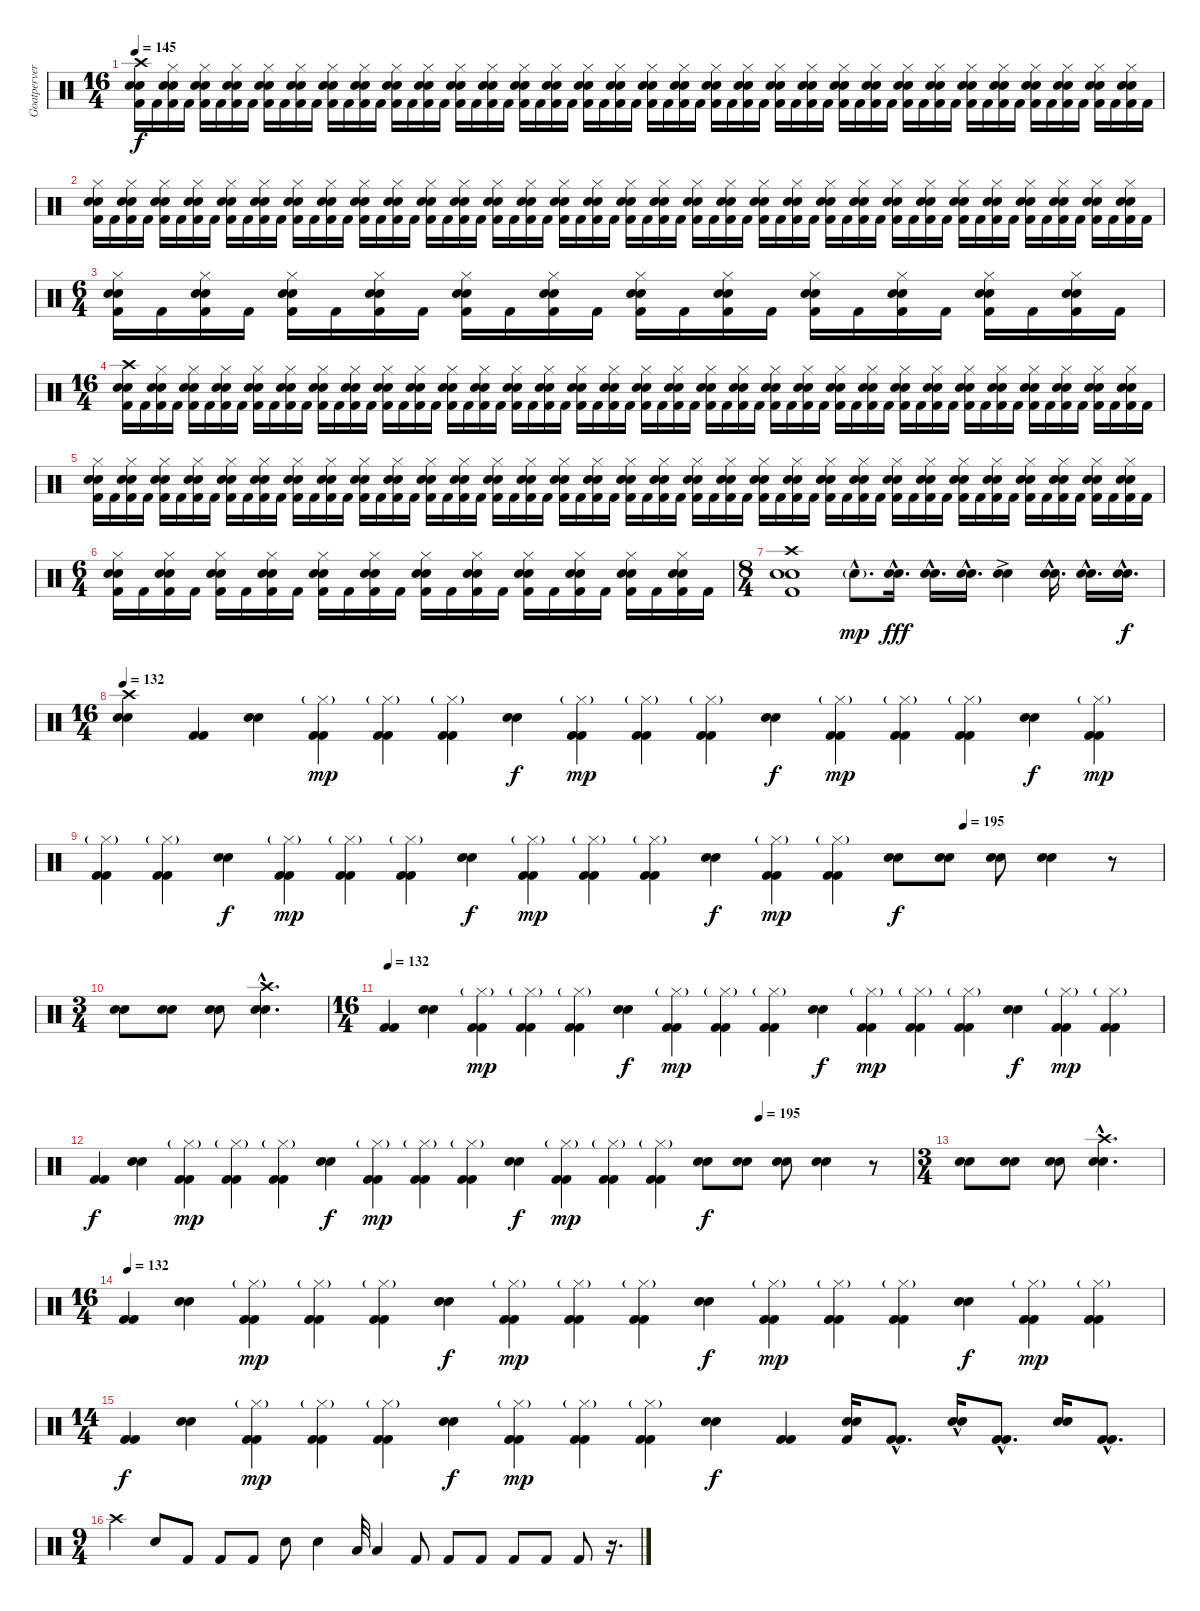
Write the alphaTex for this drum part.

\track ("Goatpervertor " "Goatperver") {instrument percussion}
\staff {score}
\articulation defaults
\ts (16 4)
\tempo 145
\clef neutral
\ks c
("Crash high (hit)" "Snare (hit) 2" "Snare (hit) 2" "Kick (hit) 2").16{dy f} "Kick (hit) 2".16 ("Hi-Hat (closed)" "Snare (hit) 2" "Snare (hit) 2" "Kick (hit) 2").16 "Kick (hit) 2".16 ("Hi-Hat (closed)" "Snare (hit) 2" "Snare (hit) 2" "Kick (hit) 2").16 "Kick (hit) 2".16 ("Hi-Hat (closed)" "Snare (hit) 2" "Snare (hit) 2" "Kick (hit) 2").16 "Kick (hit) 2".16 ("Hi-Hat (closed)" "Snare (hit) 2" "Snare (hit) 2" "Kick (hit) 2").16 "Kick (hit) 2".16 ("Hi-Hat (closed)" "Snare (hit) 2" "Snare (hit) 2" "Kick (hit) 2").16 "Kick (hit) 2".16 ("Hi-Hat (closed)" "Snare (hit) 2" "Snare (hit) 2" "Kick (hit) 2").16 "Kick (hit) 2".16 ("Hi-Hat (closed)" "Snare (hit) 2" "Snare (hit) 2" "Kick (hit) 2").16 "Kick (hit) 2".16 ("Hi-Hat (closed)" "Snare (hit) 2" "Snare (hit) 2" "Kick (hit) 2").16 "Kick (hit) 2".16 ("Hi-Hat (closed)" "Snare (hit) 2" "Snare (hit) 2" "Kick (hit) 2").16 "Kick (hit) 2".16 ("Hi-Hat (closed)" "Snare (hit) 2" "Snare (hit) 2" "Kick (hit) 2").16 "Kick (hit) 2".16 ("Hi-Hat (closed)" "Snare (hit) 2" "Snare (hit) 2" "Kick (hit) 2").16 "Kick (hit) 2".16 ("Hi-Hat (closed)" "Snare (hit) 2" "Snare (hit) 2" "Kick (hit) 2").16 "Kick (hit) 2".16 ("Hi-Hat (closed)" "Snare (hit) 2" "Snare (hit) 2" "Kick (hit) 2").16 "Kick (hit) 2".16 ("Hi-Hat (closed)" "Snare (hit) 2" "Snare (hit) 2" "Kick (hit) 2").16 "Kick (hit) 2".16 ("Hi-Hat (closed)" "Snare (hit) 2" "Snare (hit) 2" "Kick (hit) 2").16 "Kick (hit) 2".16 ("Hi-Hat (closed)" "Snare (hit) 2" "Snare (hit) 2" "Kick (hit) 2").16 "Kick (hit) 2".16 ("Hi-Hat (closed)" "Snare (hit) 2" "Snare (hit) 2" "Kick (hit) 2").16 "Kick (hit) 2".16 ("Hi-Hat (closed)" "Snare (hit) 2" "Snare (hit) 2" "Kick (hit) 2").16 "Kick (hit) 2".16 ("Hi-Hat (closed)" "Snare (hit) 2" "Snare (hit) 2" "Kick (hit) 2").16 "Kick (hit) 2".16 ("Hi-Hat (closed)" "Snare (hit) 2" "Snare (hit) 2" "Kick (hit) 2").16 "Kick (hit) 2".16 ("Hi-Hat (closed)" "Snare (hit) 2" "Snare (hit) 2" "Kick (hit) 2").16 "Kick (hit) 2".16 ("Hi-Hat (closed)" "Snare (hit) 2" "Snare (hit) 2" "Kick (hit) 2").16 "Kick (hit) 2".16 ("Hi-Hat (closed)" "Snare (hit) 2" "Snare (hit) 2" "Kick (hit) 2").16 "Kick (hit) 2".16 ("Hi-Hat (closed)" "Snare (hit) 2" "Snare (hit) 2" "Kick (hit) 2").16 "Kick (hit) 2".16 ("Hi-Hat (closed)" "Snare (hit) 2" "Snare (hit) 2" "Kick (hit) 2").16 "Kick (hit) 2".16 ("Hi-Hat (closed)" "Snare (hit) 2" "Snare (hit) 2" "Kick (hit) 2").16 "Kick (hit) 2".16 ("Hi-Hat (closed)" "Snare (hit) 2" "Snare (hit) 2" "Kick (hit) 2").16 "Kick (hit) 2".16 ("Hi-Hat (closed)" "Snare (hit) 2" "Snare (hit) 2" "Kick (hit) 2").16 "Kick (hit) 2".16 ("Hi-Hat (closed)" "Snare (hit) 2" "Snare (hit) 2" "Kick (hit) 2").16 "Kick (hit) 2".16 ("Hi-Hat (closed)" "Snare (hit) 2" "Snare (hit) 2" "Kick (hit) 2").16 "Kick (hit) 2".16 ("Hi-Hat (closed)" "Snare (hit) 2" "Snare (hit) 2" "Kick (hit) 2").16 "Kick (hit) 2".16 |
("Hi-Hat (closed)" "Snare (hit) 2" "Snare (hit) 2" "Kick (hit) 2").16 "Kick (hit) 2".16 ("Hi-Hat (closed)" "Snare (hit) 2" "Snare (hit) 2" "Kick (hit) 2").16 "Kick (hit) 2".16 ("Hi-Hat (closed)" "Snare (hit) 2" "Snare (hit) 2" "Kick (hit) 2").16 "Kick (hit) 2".16 ("Hi-Hat (closed)" "Snare (hit) 2" "Snare (hit) 2" "Kick (hit) 2").16 "Kick (hit) 2".16 ("Hi-Hat (closed)" "Snare (hit) 2" "Snare (hit) 2" "Kick (hit) 2").16 "Kick (hit) 2".16 ("Hi-Hat (closed)" "Snare (hit) 2" "Snare (hit) 2" "Kick (hit) 2").16 "Kick (hit) 2".16 ("Hi-Hat (closed)" "Snare (hit) 2" "Snare (hit) 2" "Kick (hit) 2").16 "Kick (hit) 2".16 ("Hi-Hat (closed)" "Snare (hit) 2" "Snare (hit) 2" "Kick (hit) 2").16 "Kick (hit) 2".16 ("Hi-Hat (closed)" "Snare (hit) 2" "Snare (hit) 2" "Kick (hit) 2").16 "Kick (hit) 2".16 ("Hi-Hat (closed)" "Snare (hit) 2" "Snare (hit) 2" "Kick (hit) 2").16 "Kick (hit) 2".16 ("Hi-Hat (closed)" "Snare (hit) 2" "Snare (hit) 2" "Kick (hit) 2").16 "Kick (hit) 2".16 ("Hi-Hat (closed)" "Snare (hit) 2" "Snare (hit) 2" "Kick (hit) 2").16 "Kick (hit) 2".16 ("Hi-Hat (closed)" "Snare (hit) 2" "Snare (hit) 2" "Kick (hit) 2").16 "Kick (hit) 2".16 ("Hi-Hat (closed)" "Snare (hit) 2" "Snare (hit) 2" "Kick (hit) 2").16 "Kick (hit) 2".16 ("Hi-Hat (closed)" "Snare (hit) 2" "Snare (hit) 2" "Kick (hit) 2").16 "Kick (hit) 2".16 ("Hi-Hat (closed)" "Snare (hit) 2" "Snare (hit) 2" "Kick (hit) 2").16 "Kick (hit) 2".16 ("Hi-Hat (closed)" "Snare (hit) 2" "Snare (hit) 2" "Kick (hit) 2").16 "Kick (hit) 2".16 ("Hi-Hat (closed)" "Snare (hit) 2" "Snare (hit) 2" "Kick (hit) 2").16 "Kick (hit) 2".16 ("Hi-Hat (closed)" "Snare (hit) 2" "Snare (hit) 2" "Kick (hit) 2").16 "Kick (hit) 2".16 ("Hi-Hat (closed)" "Snare (hit) 2" "Snare (hit) 2" "Kick (hit) 2").16 "Kick (hit) 2".16 ("Hi-Hat (closed)" "Snare (hit) 2" "Snare (hit) 2" "Kick (hit) 2").16 "Kick (hit) 2".16 ("Hi-Hat (closed)" "Snare (hit) 2" "Snare (hit) 2" "Kick (hit) 2").16 "Kick (hit) 2".16 ("Hi-Hat (closed)" "Snare (hit) 2" "Snare (hit) 2" "Kick (hit) 2").16 "Kick (hit) 2".16 ("Hi-Hat (closed)" "Snare (hit) 2" "Snare (hit) 2" "Kick (hit) 2").16 "Kick (hit) 2".16 ("Hi-Hat (closed)" "Snare (hit) 2" "Snare (hit) 2" "Kick (hit) 2").16 "Kick (hit) 2".16 ("Hi-Hat (closed)" "Snare (hit) 2" "Snare (hit) 2" "Kick (hit) 2").16 "Kick (hit) 2".16 ("Hi-Hat (closed)" "Snare (hit) 2" "Snare (hit) 2" "Kick (hit) 2").16 "Kick (hit) 2".16 ("Hi-Hat (closed)" "Snare (hit) 2" "Snare (hit) 2" "Kick (hit) 2").16 "Kick (hit) 2".16 ("Hi-Hat (closed)" "Snare (hit) 2" "Snare (hit) 2" "Kick (hit) 2").16 "Kick (hit) 2".16 ("Hi-Hat (closed)" "Snare (hit) 2" "Snare (hit) 2" "Kick (hit) 2").16 "Kick (hit) 2".16 ("Hi-Hat (closed)" "Snare (hit) 2" "Snare (hit) 2" "Kick (hit) 2").16 "Kick (hit) 2".16 ("Hi-Hat (closed)" "Snare (hit) 2" "Snare (hit) 2" "Kick (hit) 2").16 "Kick (hit) 2".16 |
\ts (6 4)
("Hi-Hat (closed)" "Snare (hit) 2" "Snare (hit) 2" "Kick (hit) 2").16 "Kick (hit) 2".16 ("Hi-Hat (closed)" "Snare (hit) 2" "Snare (hit) 2" "Kick (hit) 2").16 "Kick (hit) 2".16 ("Hi-Hat (closed)" "Snare (hit) 2" "Snare (hit) 2" "Kick (hit) 2").16 "Kick (hit) 2".16 ("Hi-Hat (closed)" "Snare (hit) 2" "Snare (hit) 2" "Kick (hit) 2").16 "Kick (hit) 2".16 ("Hi-Hat (closed)" "Snare (hit) 2" "Snare (hit) 2" "Kick (hit) 2").16 "Kick (hit) 2".16 ("Hi-Hat (closed)" "Snare (hit) 2" "Snare (hit) 2" "Kick (hit) 2").16 "Kick (hit) 2".16 ("Hi-Hat (closed)" "Snare (hit) 2" "Snare (hit) 2" "Kick (hit) 2").16 "Kick (hit) 2".16 ("Hi-Hat (closed)" "Snare (hit) 2" "Snare (hit) 2" "Kick (hit) 2").16 "Kick (hit) 2".16 ("Hi-Hat (closed)" "Snare (hit) 2" "Snare (hit) 2" "Kick (hit) 2").16 "Kick (hit) 2".16 ("Hi-Hat (closed)" "Snare (hit) 2" "Snare (hit) 2" "Kick (hit) 2").16 "Kick (hit) 2".16 ("Hi-Hat (closed)" "Snare (hit) 2" "Snare (hit) 2" "Kick (hit) 2").16 "Kick (hit) 2".16 ("Hi-Hat (closed)" "Snare (hit) 2" "Snare (hit) 2" "Kick (hit) 2").16 "Kick (hit) 2".16 |
\ts (16 4)
("Crash high (hit)" "Snare (hit) 2" "Snare (hit) 2" "Kick (hit) 2").16 "Kick (hit) 2".16 ("Hi-Hat (closed)" "Snare (hit) 2" "Snare (hit) 2" "Kick (hit) 2").16 "Kick (hit) 2".16 ("Hi-Hat (closed)" "Snare (hit) 2" "Snare (hit) 2" "Kick (hit) 2").16 "Kick (hit) 2".16 ("Hi-Hat (closed)" "Snare (hit) 2" "Snare (hit) 2" "Kick (hit) 2").16 "Kick (hit) 2".16 ("Hi-Hat (closed)" "Snare (hit) 2" "Snare (hit) 2" "Kick (hit) 2").16 "Kick (hit) 2".16 ("Hi-Hat (closed)" "Snare (hit) 2" "Snare (hit) 2" "Kick (hit) 2").16 "Kick (hit) 2".16 ("Hi-Hat (closed)" "Snare (hit) 2" "Snare (hit) 2" "Kick (hit) 2").16 "Kick (hit) 2".16 ("Hi-Hat (closed)" "Snare (hit) 2" "Snare (hit) 2" "Kick (hit) 2").16 "Kick (hit) 2".16 ("Hi-Hat (closed)" "Snare (hit) 2" "Snare (hit) 2" "Kick (hit) 2").16 "Kick (hit) 2".16 ("Hi-Hat (closed)" "Snare (hit) 2" "Snare (hit) 2" "Kick (hit) 2").16 "Kick (hit) 2".16 ("Hi-Hat (closed)" "Snare (hit) 2" "Snare (hit) 2" "Kick (hit) 2").16 "Kick (hit) 2".16 ("Hi-Hat (closed)" "Snare (hit) 2" "Snare (hit) 2" "Kick (hit) 2").16 "Kick (hit) 2".16 ("Hi-Hat (closed)" "Snare (hit) 2" "Snare (hit) 2" "Kick (hit) 2").16 "Kick (hit) 2".16 ("Hi-Hat (closed)" "Snare (hit) 2" "Snare (hit) 2" "Kick (hit) 2").16 "Kick (hit) 2".16 ("Hi-Hat (closed)" "Snare (hit) 2" "Snare (hit) 2" "Kick (hit) 2").16 "Kick (hit) 2".16 ("Hi-Hat (closed)" "Snare (hit) 2" "Snare (hit) 2" "Kick (hit) 2").16 "Kick (hit) 2".16 ("Hi-Hat (closed)" "Snare (hit) 2" "Snare (hit) 2" "Kick (hit) 2").16 "Kick (hit) 2".16 ("Hi-Hat (closed)" "Snare (hit) 2" "Snare (hit) 2" "Kick (hit) 2").16 "Kick (hit) 2".16 ("Hi-Hat (closed)" "Snare (hit) 2" "Snare (hit) 2" "Kick (hit) 2").16 "Kick (hit) 2".16 ("Hi-Hat (closed)" "Snare (hit) 2" "Snare (hit) 2" "Kick (hit) 2").16 "Kick (hit) 2".16 ("Hi-Hat (closed)" "Snare (hit) 2" "Snare (hit) 2" "Kick (hit) 2").16 "Kick (hit) 2".16 ("Hi-Hat (closed)" "Snare (hit) 2" "Snare (hit) 2" "Kick (hit) 2").16 "Kick (hit) 2".16 ("Hi-Hat (closed)" "Snare (hit) 2" "Snare (hit) 2" "Kick (hit) 2").16 "Kick (hit) 2".16 ("Hi-Hat (closed)" "Snare (hit) 2" "Snare (hit) 2" "Kick (hit) 2").16 "Kick (hit) 2".16 ("Hi-Hat (closed)" "Snare (hit) 2" "Snare (hit) 2" "Kick (hit) 2").16 "Kick (hit) 2".16 ("Hi-Hat (closed)" "Snare (hit) 2" "Snare (hit) 2" "Kick (hit) 2").16 "Kick (hit) 2".16 ("Hi-Hat (closed)" "Snare (hit) 2" "Snare (hit) 2" "Kick (hit) 2").16 "Kick (hit) 2".16 ("Hi-Hat (closed)" "Snare (hit) 2" "Snare (hit) 2" "Kick (hit) 2").16 "Kick (hit) 2".16 ("Hi-Hat (closed)" "Snare (hit) 2" "Snare (hit) 2" "Kick (hit) 2").16 "Kick (hit) 2".16 ("Hi-Hat (closed)" "Snare (hit) 2" "Snare (hit) 2" "Kick (hit) 2").16 "Kick (hit) 2".16 ("Hi-Hat (closed)" "Snare (hit) 2" "Snare (hit) 2" "Kick (hit) 2").16 "Kick (hit) 2".16 ("Hi-Hat (closed)" "Snare (hit) 2" "Snare (hit) 2" "Kick (hit) 2").16 "Kick (hit) 2".16 |
("Hi-Hat (closed)" "Snare (hit) 2" "Snare (hit) 2" "Kick (hit) 2").16 "Kick (hit) 2".16 ("Hi-Hat (closed)" "Snare (hit) 2" "Snare (hit) 2" "Kick (hit) 2").16 "Kick (hit) 2".16 ("Hi-Hat (closed)" "Snare (hit) 2" "Snare (hit) 2" "Kick (hit) 2").16 "Kick (hit) 2".16 ("Hi-Hat (closed)" "Snare (hit) 2" "Snare (hit) 2" "Kick (hit) 2").16 "Kick (hit) 2".16 ("Hi-Hat (closed)" "Snare (hit) 2" "Snare (hit) 2" "Kick (hit) 2").16 "Kick (hit) 2".16 ("Hi-Hat (closed)" "Snare (hit) 2" "Snare (hit) 2" "Kick (hit) 2").16 "Kick (hit) 2".16 ("Hi-Hat (closed)" "Snare (hit) 2" "Snare (hit) 2" "Kick (hit) 2").16 "Kick (hit) 2".16 ("Hi-Hat (closed)" "Snare (hit) 2" "Snare (hit) 2" "Kick (hit) 2").16 "Kick (hit) 2".16 ("Hi-Hat (closed)" "Snare (hit) 2" "Snare (hit) 2" "Kick (hit) 2").16 "Kick (hit) 2".16 ("Hi-Hat (closed)" "Snare (hit) 2" "Snare (hit) 2" "Kick (hit) 2").16 "Kick (hit) 2".16 ("Hi-Hat (closed)" "Snare (hit) 2" "Snare (hit) 2" "Kick (hit) 2").16 "Kick (hit) 2".16 ("Hi-Hat (closed)" "Snare (hit) 2" "Snare (hit) 2" "Kick (hit) 2").16 "Kick (hit) 2".16 ("Hi-Hat (closed)" "Snare (hit) 2" "Snare (hit) 2" "Kick (hit) 2").16 "Kick (hit) 2".16 ("Hi-Hat (closed)" "Snare (hit) 2" "Snare (hit) 2" "Kick (hit) 2").16 "Kick (hit) 2".16 ("Hi-Hat (closed)" "Snare (hit) 2" "Snare (hit) 2" "Kick (hit) 2").16 "Kick (hit) 2".16 ("Hi-Hat (closed)" "Snare (hit) 2" "Snare (hit) 2" "Kick (hit) 2").16 "Kick (hit) 2".16 ("Hi-Hat (closed)" "Snare (hit) 2" "Snare (hit) 2" "Kick (hit) 2").16 "Kick (hit) 2".16 ("Hi-Hat (closed)" "Snare (hit) 2" "Snare (hit) 2" "Kick (hit) 2").16 "Kick (hit) 2".16 ("Hi-Hat (closed)" "Snare (hit) 2" "Snare (hit) 2" "Kick (hit) 2").16 "Kick (hit) 2".16 ("Hi-Hat (closed)" "Snare (hit) 2" "Snare (hit) 2" "Kick (hit) 2").16 "Kick (hit) 2".16 ("Hi-Hat (closed)" "Snare (hit) 2" "Snare (hit) 2" "Kick (hit) 2").16 "Kick (hit) 2".16 ("Hi-Hat (closed)" "Snare (hit) 2" "Snare (hit) 2" "Kick (hit) 2").16 "Kick (hit) 2".16 ("Hi-Hat (closed)" "Snare (hit) 2" "Snare (hit) 2" "Kick (hit) 2").16 "Kick (hit) 2".16 ("Hi-Hat (closed)" "Snare (hit) 2" "Snare (hit) 2" "Kick (hit) 2").16 "Kick (hit) 2".16 ("Hi-Hat (closed)" "Snare (hit) 2" "Snare (hit) 2" "Kick (hit) 2").16 "Kick (hit) 2".16 ("Hi-Hat (closed)" "Snare (hit) 2" "Snare (hit) 2" "Kick (hit) 2").16 "Kick (hit) 2".16 ("Hi-Hat (closed)" "Snare (hit) 2" "Snare (hit) 2" "Kick (hit) 2").16 "Kick (hit) 2".16 ("Hi-Hat (closed)" "Snare (hit) 2" "Snare (hit) 2" "Kick (hit) 2").16 "Kick (hit) 2".16 ("Hi-Hat (closed)" "Snare (hit) 2" "Snare (hit) 2" "Kick (hit) 2").16 "Kick (hit) 2".16 ("Hi-Hat (closed)" "Snare (hit) 2" "Snare (hit) 2" "Kick (hit) 2").16 "Kick (hit) 2".16 ("Hi-Hat (closed)" "Snare (hit) 2" "Snare (hit) 2" "Kick (hit) 2").16 "Kick (hit) 2".16 ("Hi-Hat (closed)" "Snare (hit) 2" "Snare (hit) 2" "Kick (hit) 2").16 "Kick (hit) 2".16 |
\ts (6 4)
("Hi-Hat (closed)" "Snare (hit) 2" "Snare (hit) 2" "Kick (hit) 2").16 "Kick (hit) 2".16 ("Hi-Hat (closed)" "Snare (hit) 2" "Snare (hit) 2" "Kick (hit) 2").16 "Kick (hit) 2".16 ("Hi-Hat (closed)" "Snare (hit) 2" "Snare (hit) 2" "Kick (hit) 2").16 "Kick (hit) 2".16 ("Hi-Hat (closed)" "Snare (hit) 2" "Snare (hit) 2" "Kick (hit) 2").16 "Kick (hit) 2".16 ("Hi-Hat (closed)" "Snare (hit) 2" "Snare (hit) 2" "Kick (hit) 2").16 "Kick (hit) 2".16 ("Hi-Hat (closed)" "Snare (hit) 2" "Snare (hit) 2" "Kick (hit) 2").16 "Kick (hit) 2".16 ("Hi-Hat (closed)" "Snare (hit) 2" "Snare (hit) 2" "Kick (hit) 2").16 "Kick (hit) 2".16 ("Hi-Hat (closed)" "Snare (hit) 2" "Snare (hit) 2" "Kick (hit) 2").16 "Kick (hit) 2".16 ("Hi-Hat (closed)" "Snare (hit) 2" "Snare (hit) 2" "Kick (hit) 2").16 "Kick (hit) 2".16 ("Hi-Hat (closed)" "Snare (hit) 2" "Snare (hit) 2" "Kick (hit) 2").16 "Kick (hit) 2".16 ("Hi-Hat (closed)" "Snare (hit) 2" "Snare (hit) 2" "Kick (hit) 2").16 "Kick (hit) 2".16 ("Hi-Hat (closed)" "Snare (hit) 2" "Snare (hit) 2" "Kick (hit) 2").16 "Kick (hit) 2".16 |
\ts (8 4)
("Crash high (hit)" "Snare (hit) 2" "Snare (hit) 2" "Kick (hit) 2").1 "Snare (hit) 2"{g hac}.8{d dy mp} ("Snare (hit) 2"{hac} "Snare (hit) 2"{hac}).16{d dy fff} ("Snare (hit) 2"{hac} "Snare (hit) 2"{hac}).16{d} ("Snare (hit) 2"{hac} "Snare (hit) 2"{hac}).16{d} ("Snare (hit) 2"{ac} "Snare (hit) 2"{ac}).4 ("Snare (hit) 2"{hac} "Snare (hit) 2"{hac}).16{d} ("Snare (hit) 2"{hac} "Snare (hit) 2"{hac}).16{d} ("Snare (hit) 2"{hac} "Snare (hit) 2"{hac}).16{d dy f} |
\ts (16 4)
\tempo 132
("Crash high (hit)" "Snare (hit) 2" "Snare (hit) 2").4 ("Kick (hit) 2" "Kick (hit) 2").4 ("Snare (hit) 2" "Snare (hit) 2").4 ("Hi-Hat (closed)"{g} "Kick (hit) 2" "Kick (hit) 2").4{dy mp} ("Hi-Hat (closed)"{g} "Kick (hit) 2" "Kick (hit) 2").4 ("Hi-Hat (closed)"{g} "Kick (hit) 2" "Kick (hit) 2").4 ("Snare (hit) 2" "Snare (hit) 2").4{dy f} ("Hi-Hat (closed)"{g} "Kick (hit) 2" "Kick (hit) 2").4{dy mp} ("Hi-Hat (closed)"{g} "Kick (hit) 2" "Kick (hit) 2").4 ("Hi-Hat (closed)"{g} "Kick (hit) 2" "Kick (hit) 2").4 ("Snare (hit) 2" "Snare (hit) 2").4{dy f} ("Hi-Hat (closed)"{g} "Kick (hit) 2" "Kick (hit) 2").4{dy mp} ("Hi-Hat (closed)"{g} "Kick (hit) 2" "Kick (hit) 2").4 ("Hi-Hat (closed)"{g} "Kick (hit) 2" "Kick (hit) 2").4 ("Snare (hit) 2" "Snare (hit) 2").4{dy f} ("Hi-Hat (closed)"{g} "Kick (hit) 2" "Kick (hit) 2").4{dy mp} |
\tempo (195 0.8125)
("Hi-Hat (closed)"{g} "Kick (hit) 2" "Kick (hit) 2").4 ("Hi-Hat (closed)"{g} "Kick (hit) 2" "Kick (hit) 2").4 ("Snare (hit) 2" "Snare (hit) 2").4{dy f} ("Hi-Hat (closed)"{g} "Kick (hit) 2" "Kick (hit) 2").4{dy mp} ("Hi-Hat (closed)"{g} "Kick (hit) 2" "Kick (hit) 2").4 ("Hi-Hat (closed)"{g} "Kick (hit) 2" "Kick (hit) 2").4 ("Snare (hit) 2" "Snare (hit) 2").4{dy f} ("Hi-Hat (closed)"{g} "Kick (hit) 2" "Kick (hit) 2").4{dy mp} ("Hi-Hat (closed)"{g} "Kick (hit) 2" "Kick (hit) 2").4 ("Hi-Hat (closed)"{g} "Kick (hit) 2" "Kick (hit) 2").4 ("Snare (hit) 2" "Snare (hit) 2").4{dy f} ("Hi-Hat (closed)"{g} "Kick (hit) 2" "Kick (hit) 2").4{dy mp} ("Hi-Hat (closed)"{g} "Kick (hit) 2" "Kick (hit) 2").4 ("Snare (hit) 2" "Snare (hit) 2").8{dy f} ("Snare (hit) 2" "Snare (hit) 2").8 ("Snare (hit) 2" "Snare (hit) 2").8 ("Snare (hit) 2" "Snare (hit) 2").4 r.8 |
\ts (3 4)
("Snare (hit) 2" "Snare (hit) 2").8 ("Snare (hit) 2" "Snare (hit) 2").8 ("Snare (hit) 2" "Snare (hit) 2").8 ("Crash high (hit)"{hac} "Snare (hit) 2"{hac} "Snare (hit) 2"{hac}).4{d} |
\ts (16 4)
\tempo 132
("Kick (hit) 2" "Kick (hit) 2").4 ("Snare (hit) 2" "Snare (hit) 2").4 ("Hi-Hat (closed)"{g} "Kick (hit) 2" "Kick (hit) 2").4{dy mp} ("Hi-Hat (closed)"{g} "Kick (hit) 2" "Kick (hit) 2").4 ("Hi-Hat (closed)"{g} "Kick (hit) 2" "Kick (hit) 2").4 ("Snare (hit) 2" "Snare (hit) 2").4{dy f} ("Hi-Hat (closed)"{g} "Kick (hit) 2" "Kick (hit) 2").4{dy mp} ("Hi-Hat (closed)"{g} "Kick (hit) 2" "Kick (hit) 2").4 ("Hi-Hat (closed)"{g} "Kick (hit) 2" "Kick (hit) 2").4 ("Snare (hit) 2" "Snare (hit) 2").4{dy f} ("Hi-Hat (closed)"{g} "Kick (hit) 2" "Kick (hit) 2").4{dy mp} ("Hi-Hat (closed)"{g} "Kick (hit) 2" "Kick (hit) 2").4 ("Hi-Hat (closed)"{g} "Kick (hit) 2" "Kick (hit) 2").4 ("Snare (hit) 2" "Snare (hit) 2").4{dy f} ("Hi-Hat (closed)"{g} "Kick (hit) 2" "Kick (hit) 2").4{dy mp} ("Hi-Hat (closed)"{g} "Kick (hit) 2" "Kick (hit) 2").4 |
\tempo (195 0.8125)
("Kick (hit) 2" "Kick (hit) 2").4{dy f} ("Snare (hit) 2" "Snare (hit) 2").4 ("Hi-Hat (closed)"{g} "Kick (hit) 2" "Kick (hit) 2").4{dy mp} ("Hi-Hat (closed)"{g} "Kick (hit) 2" "Kick (hit) 2").4 ("Hi-Hat (closed)"{g} "Kick (hit) 2" "Kick (hit) 2").4 ("Snare (hit) 2" "Snare (hit) 2").4{dy f} ("Hi-Hat (closed)"{g} "Kick (hit) 2" "Kick (hit) 2").4{dy mp} ("Hi-Hat (closed)"{g} "Kick (hit) 2" "Kick (hit) 2").4 ("Hi-Hat (closed)"{g} "Kick (hit) 2" "Kick (hit) 2").4 ("Snare (hit) 2" "Snare (hit) 2").4{dy f} ("Hi-Hat (closed)"{g} "Kick (hit) 2" "Kick (hit) 2").4{dy mp} ("Hi-Hat (closed)"{g} "Kick (hit) 2" "Kick (hit) 2").4 ("Hi-Hat (closed)"{g} "Kick (hit) 2" "Kick (hit) 2").4 ("Snare (hit) 2" "Snare (hit) 2").8{dy f} ("Snare (hit) 2" "Snare (hit) 2").8 ("Snare (hit) 2" "Snare (hit) 2").8 ("Snare (hit) 2" "Snare (hit) 2").4 r.8 |
\ts (3 4)
("Snare (hit) 2" "Snare (hit) 2").8 ("Snare (hit) 2" "Snare (hit) 2").8 ("Snare (hit) 2" "Snare (hit) 2").8 ("Crash high (hit)"{hac} "Snare (hit) 2"{hac} "Snare (hit) 2"{hac}).4{d} |
\ts (16 4)
\tempo 132
("Kick (hit) 2" "Kick (hit) 2").4 ("Snare (hit) 2" "Snare (hit) 2").4 ("Hi-Hat (closed)"{g} "Kick (hit) 2" "Kick (hit) 2").4{dy mp} ("Hi-Hat (closed)"{g} "Kick (hit) 2" "Kick (hit) 2").4 ("Hi-Hat (closed)"{g} "Kick (hit) 2" "Kick (hit) 2").4 ("Snare (hit) 2" "Snare (hit) 2").4{dy f} ("Hi-Hat (closed)"{g} "Kick (hit) 2" "Kick (hit) 2").4{dy mp} ("Hi-Hat (closed)"{g} "Kick (hit) 2" "Kick (hit) 2").4 ("Hi-Hat (closed)"{g} "Kick (hit) 2" "Kick (hit) 2").4 ("Snare (hit) 2" "Snare (hit) 2").4{dy f} ("Hi-Hat (closed)"{g} "Kick (hit) 2" "Kick (hit) 2").4{dy mp} ("Hi-Hat (closed)"{g} "Kick (hit) 2" "Kick (hit) 2").4 ("Hi-Hat (closed)"{g} "Kick (hit) 2" "Kick (hit) 2").4 ("Snare (hit) 2" "Snare (hit) 2").4{dy f} ("Hi-Hat (closed)"{g} "Kick (hit) 2" "Kick (hit) 2").4{dy mp} ("Hi-Hat (closed)"{g} "Kick (hit) 2" "Kick (hit) 2").4 |
\ts (14 4)
("Kick (hit) 2" "Kick (hit) 2").4{dy f} ("Snare (hit) 2" "Snare (hit) 2").4 ("Hi-Hat (closed)"{g} "Kick (hit) 2" "Kick (hit) 2").4{dy mp} ("Hi-Hat (closed)"{g} "Kick (hit) 2" "Kick (hit) 2").4 ("Hi-Hat (closed)"{g} "Kick (hit) 2" "Kick (hit) 2").4 ("Snare (hit) 2" "Snare (hit) 2").4{dy f} ("Hi-Hat (closed)"{g} "Kick (hit) 2" "Kick (hit) 2").4{dy mp} ("Hi-Hat (closed)"{g} "Kick (hit) 2" "Kick (hit) 2").4 ("Hi-Hat (closed)"{g} "Kick (hit) 2" "Kick (hit) 2").4 ("Snare (hit) 2" "Snare (hit) 2").4{dy f} ("Kick (hit) 2" "Kick (hit) 2").4 ("Snare (hit) 2" "Snare (hit) 2" "Kick (hit) 2").16 ("Kick (hit) 2"{hac} "Kick (hit) 2"{hac}).8{d} ("Snare (hit) 2" "Snare (hit) 2"{hac}).16 ("Kick (hit) 2"{hac} "Kick (hit) 2"{hac}).8{d} ("Snare (hit) 2" "Snare (hit) 2").16 ("Kick (hit) 2"{hac} "Kick (hit) 2"{hac}).8{d} |
\ts (9 4)
"Crash high (hit)".4 "Snare (hit) 2".8 "Kick (hit) 2".8 "Kick (hit) 2".8 "Kick (hit) 2".8 "Snare (hit) 2".8 "Snare (hit) 2".4 "Low Tom (hit)".32 "Low Tom (hit)".4 "Kick (hit) 2".8 "Kick (hit) 2".8 "Kick (hit) 2".8 "Kick (hit) 2".8 "Kick (hit) 2".8 "Kick (hit) 2".8 r.16{d}
